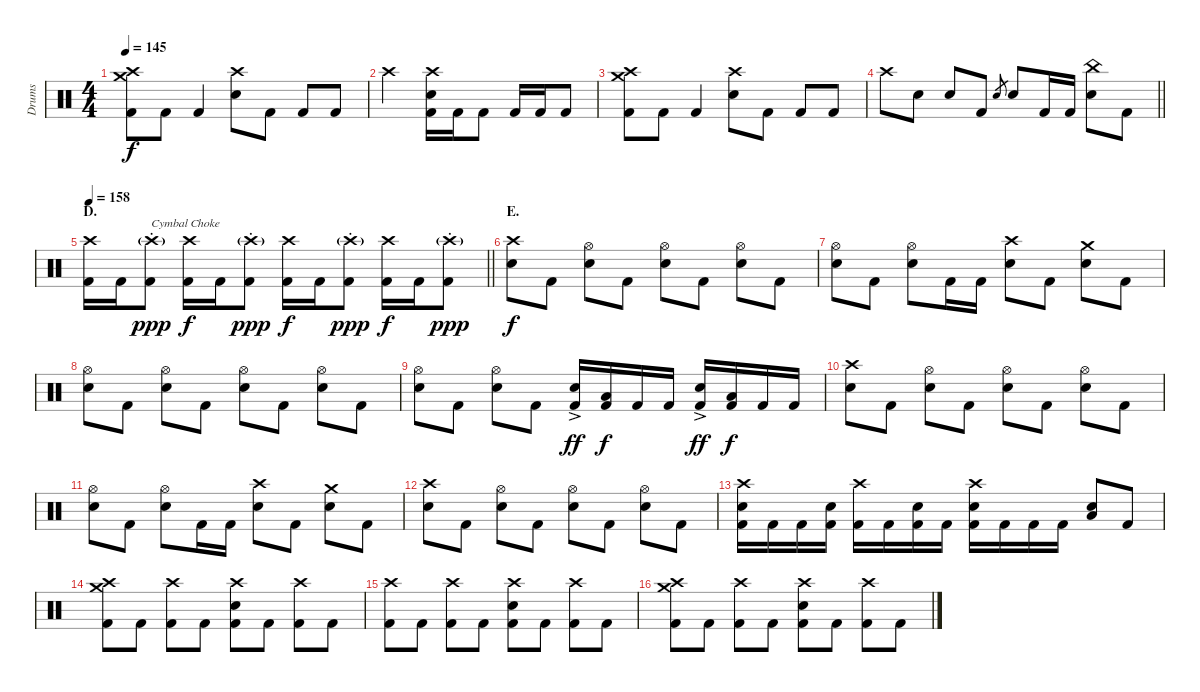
\track ("Drums" "Drums") {instrument percussion}
\staff {score}
\articulation defaults
\ts (4 4)
\tempo 145
\clef neutral
\ks c
("Crash medium (hit)" "Crash high (hit)" "Kick (hit) 2").8{dy f} "Kick (hit) 2".8 "Kick (hit) 2".4 ("Crash high (hit)" "Electric Snare (hit)").8 "Kick (hit) 2".8 "Kick (hit) 2".8 "Kick (hit) 2".8 |
"Crash high (hit)".2 ("Crash high (hit)" "Electric Snare (hit)" "Kick (hit) 2").16 "Kick (hit) 2".16 "Kick (hit) 2".8 "Kick (hit) 2".16 "Kick (hit) 2".16 "Kick (hit) 2".8 |
("Crash medium (hit)" "Crash high (hit)" "Kick (hit) 2").8 "Kick (hit) 2".8 "Kick (hit) 2".4 ("Crash high (hit)" "Electric Snare (hit)").8 "Kick (hit) 2".8 "Kick (hit) 2".8 "Kick (hit) 2".8 |
\barLineRight lightlight "Crash high (hit)".8 "Electric Snare (hit)".8 "Electric Snare (hit)".8 "Kick (hit) 2".8 "Electric Snare (hit)".8{gr} "Electric Snare (hit)".8 "Kick (hit) 2".16 "Kick (hit) 2".16
("China (hit)" "Electric Snare (hit)").8 "Kick (hit) 2".8 |
\section ("" "D.")
\tempo 158
\barLineRight lightlight
("Crash high (hit)" "Kick (hit) 2").16 "Kick (hit) 2".16 ("Crash high (hit)"{g st} "Kick (hit) 2").8{txt "Cymbal Choke" dy ppp} ("Crash high (hit)" "Kick (hit) 2").16{dy f} "Kick (hit) 2".16 ("Crash high (hit)"{g st} "Kick (hit) 2").8{dy ppp} ("Crash high (hit)" "Kick (hit) 2").16{dy f} "Kick (hit) 2".16 ("Crash high (hit)"{g st} "Kick (hit) 2").8{dy ppp} ("Crash high (hit)" "Kick (hit) 2").16{dy f} "Kick (hit) 2".16 ("Crash high (hit)"{g st} "Kick (hit) 2").8{dy ppp} |
\section ("" "E.")
("Crash high (hit)" "Electric Snare (hit)").8{dy f} "Kick (hit) 2".8 ("Hi-Hat (open)" "Electric Snare (hit)").8 "Kick (hit) 2".8 ("Hi-Hat (open)" "Electric Snare (hit)").8 "Kick (hit) 2".8 ("Hi-Hat (open)" "Electric Snare (hit)").8 "Kick (hit) 2".8 |
("Hi-Hat (open)" "Electric Snare (hit)").8 "Kick (hit) 2".8 ("Hi-Hat (open)" "Electric Snare (hit)").8 "Kick (hit) 2".16 "Kick (hit) 2".16 ("Crash high (hit)" "Electric Snare (hit)").8 "Kick (hit) 2".8 ("Crash medium (hit)" "Electric Snare (hit)").8 "Kick (hit) 2".8 |
("Hi-Hat (open)" "Electric Snare (hit)").8 "Kick (hit) 2".8 ("Hi-Hat (open)" "Electric Snare (hit)").8 "Kick (hit) 2".8 ("Hi-Hat (open)" "Electric Snare (hit)").8 "Kick (hit) 2".8 ("Hi-Hat (open)" "Electric Snare (hit)").8 "Kick (hit) 2".8 |
("Hi-Hat (open)" "Electric Snare (hit)").8 "Kick (hit) 2".8 ("Hi-Hat (open)" "Electric Snare (hit)").8 "Kick (hit) 2".8 ("Electric Snare (hit)"{ac} "Kick (hit) 2").16{dy ff} ("Low Tom (hit)" "Kick (hit) 2").16{dy f} "Kick (hit) 2".16 "Kick (hit) 2".16 ("Electric Snare (hit)"{ac} "Kick (hit) 2").16{dy ff} ("Low Tom (hit)" "Kick (hit) 2").16{dy f} "Kick (hit) 2".16 "Kick (hit) 2".16 |
("Crash high (hit)" "Electric Snare (hit)").8 "Kick (hit) 2".8 ("Hi-Hat (open)" "Electric Snare (hit)").8 "Kick (hit) 2".8 ("Hi-Hat (open)" "Electric Snare (hit)").8 "Kick (hit) 2".8 ("Hi-Hat (open)" "Electric Snare (hit)").8 "Kick (hit) 2".8 |
("Hi-Hat (open)" "Electric Snare (hit)").8 "Kick (hit) 2".8 ("Hi-Hat (open)" "Electric Snare (hit)").8 "Kick (hit) 2".16 "Kick (hit) 2".16 ("Crash high (hit)" "Electric Snare (hit)").8 "Kick (hit) 2".8 ("Crash medium (hit)" "Electric Snare (hit)").8 "Kick (hit) 2".8 |
("Crash high (hit)" "Electric Snare (hit)").8 "Kick (hit) 2".8 ("Hi-Hat (open)" "Electric Snare (hit)").8 "Kick (hit) 2".8 ("Hi-Hat (open)" "Electric Snare (hit)").8 "Kick (hit) 2".8 ("Hi-Hat (open)" "Electric Snare (hit)").8 "Kick (hit) 2".8 |
("Crash high (hit)" "Electric Snare (hit)" "Kick (hit) 2").16 "Kick (hit) 2".16 "Kick (hit) 2".16 ("Electric Snare (hit)" "Kick (hit) 2").16 ("Crash high (hit)" "Kick (hit) 2").16 "Kick (hit) 2".16 ("Electric Snare (hit)" "Kick (hit) 2").16 "Kick (hit) 2".16 ("Crash high (hit)" "Electric Snare (hit)" "Kick (hit) 2").16 "Kick (hit) 2".16 "Kick (hit) 2".16 "Kick (hit) 2".16 ("Electric Snare (hit)" "Low Floor Tom (hit)").8{bu 120} "Kick (hit) 2".8 |
("Crash medium (hit)" "Crash high (hit)" "Kick (hit) 2").8 "Kick (hit) 2".8 ("Crash high (hit)" "Kick (hit) 2").8 "Kick (hit) 2".8 ("Crash high (hit)" "Electric Snare (hit)" "Kick (hit) 2").8 "Kick (hit) 2".8 ("Crash high (hit)" "Kick (hit) 2").8 "Kick (hit) 2".8 |
("Crash high (hit)" "Kick (hit) 2").8 "Kick (hit) 2".8 ("Crash high (hit)" "Kick (hit) 2").8 "Kick (hit) 2".8 ("Crash high (hit)" "Electric Snare (hit)" "Kick (hit) 2").8 "Kick (hit) 2".8 ("Crash high (hit)" "Kick (hit) 2").8 "Kick (hit) 2".8 |
("Crash medium (hit)" "Crash high (hit)" "Kick (hit) 2").8 "Kick (hit) 2".8 ("Crash high (hit)" "Kick (hit) 2").8 "Kick (hit) 2".8 ("Crash high (hit)" "Electric Snare (hit)" "Kick (hit) 2").8 "Kick (hit) 2".8 ("Crash high (hit)" "Kick (hit) 2").8 "Kick (hit) 2".8
